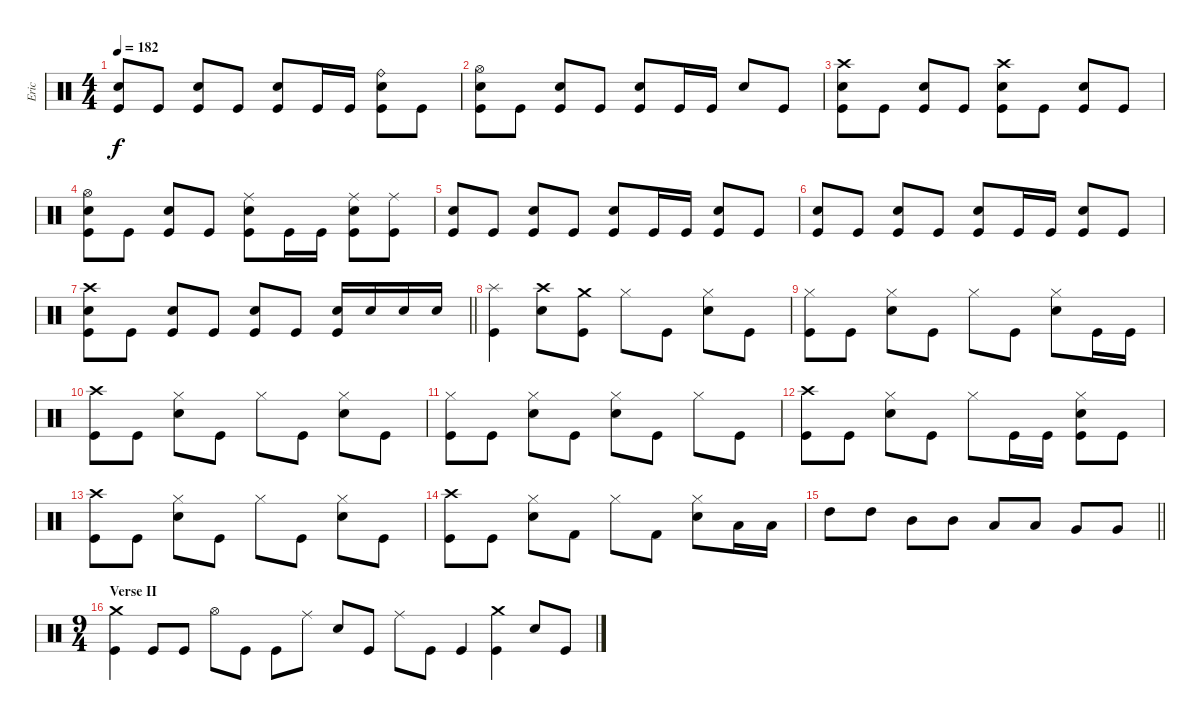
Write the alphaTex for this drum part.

\track ("Eric" "Eric") {instrument percussion}
\staff {score}
\articulation defaults
\ts (4 4)
\tempo 182
\clef neutral
\ks c
("Snare (hit) 2" "Kick (hit)").8{dy f} "Kick (hit)".8 ("Snare (hit) 2" "Kick (hit)").8 "Kick (hit)".8 ("Snare (hit) 2" "Kick (hit)").8 "Kick (hit)".16 "Kick (hit)".16 ("Ride (bell)" "Snare (hit) 2" "Kick (hit)").8 "Kick (hit)".8 |
("Hi-Hat (open)" "Snare (hit) 2" "Kick (hit)").8 "Kick (hit)".8 ("Snare (hit) 2" "Kick (hit)").8 "Kick (hit)".8 ("Snare (hit) 2" "Kick (hit)").8 "Kick (hit)".16 "Kick (hit)".16 "Snare (hit) 2".8 "Kick (hit)".8 |
("Crash high (hit)" "Snare (hit) 2" "Kick (hit)").8 "Kick (hit)".8 ("Snare (hit) 2" "Kick (hit)").8 "Kick (hit)".8 ("Crash high (hit)" "Snare (hit) 2" "Kick (hit)").8 "Kick (hit)".8 ("Snare (hit) 2" "Kick (hit)").8 "Kick (hit)".8 |
("Hi-Hat (open)" "Snare (hit) 2" "Kick (hit)").8 "Kick (hit)".8 ("Snare (hit) 2" "Kick (hit)").8 "Kick (hit)".8 ("Ride (middle)" "Snare (hit) 2" "Kick (hit)").8 "Kick (hit)".16 "Kick (hit)".16 ("Ride (middle)" "Snare (hit) 2" "Kick (hit)").8 ("Ride (middle)" "Kick (hit)").8 |
("Snare (hit) 2" "Kick (hit)").8 "Kick (hit)".8 ("Snare (hit) 2" "Kick (hit)").8 "Kick (hit)".8 ("Snare (hit) 2" "Kick (hit)").8 "Kick (hit)".16 "Kick (hit)".16 ("Snare (hit) 2" "Kick (hit)").8 "Kick (hit)".8 |
("Snare (hit) 2" "Kick (hit)").8 "Kick (hit)".8 ("Snare (hit) 2" "Kick (hit)").8 "Kick (hit)".8 ("Snare (hit) 2" "Kick (hit)").8 "Kick (hit)".16 "Kick (hit)".16 ("Snare (hit) 2" "Kick (hit)").8 "Kick (hit)".8 |
\barLineRight lightlight
("Crash high (hit)" "Snare (hit) 2" "Kick (hit)").8 "Kick (hit)".8 ("Snare (hit) 2" "Kick (hit)").8 "Kick (hit)".8 ("Snare (hit) 2" "Kick (hit)").8 "Kick (hit)".8 ("Snare (hit) 2" "Kick (hit)").16 "Snare (hit) 2".16 "Snare (hit) 2".16 "Snare (hit) 2".16 |
("Splash (hit)" "Kick (hit)").4 ("Crash high (hit)" "Snare (hit) 2").8 ("Crash medium (hit)" "Kick (hit)").8 "Hi-Hat (closed)".8 "Kick (hit)".8 ("Hi-Hat (closed)" "Snare (hit) 2").8 "Kick (hit)".8 |
("Hi-Hat (closed)" "Kick (hit)").8 "Kick (hit)".8 ("Hi-Hat (closed)" "Snare (hit) 2").8 "Kick (hit)".8 "Hi-Hat (closed)".8 "Kick (hit)".8 ("Hi-Hat (closed)" "Snare (hit) 2").8 "Kick (hit)".16 "Kick (hit)".16 |
("Crash high (hit)" "Kick (hit)").8 "Kick (hit)".8 ("Hi-Hat (closed)" "Snare (hit) 2").8 "Kick (hit)".8 "Hi-Hat (closed)".8 "Kick (hit)".8 ("Hi-Hat (closed)" "Snare (hit) 2").8 "Kick (hit)".8 |
("Hi-Hat (closed)" "Kick (hit)").8 "Kick (hit)".8 ("Hi-Hat (closed)" "Snare (hit) 2").8 "Kick (hit)".8 ("Hi-Hat (closed)" "Snare (hit) 2").8 "Kick (hit)".8 "Hi-Hat (closed)".8 "Kick (hit)".8 |
("Crash high (hit)" "Kick (hit)").8 "Kick (hit)".8 ("Hi-Hat (closed)" "Snare (hit) 2").8 "Kick (hit)".8 "Hi-Hat (closed)".8 "Kick (hit)".16 "Kick (hit)".16 ("Hi-Hat (closed)" "Snare (hit) 2" "Kick (hit)").8 "Kick (hit)".8 |
("Crash high (hit)" "Kick (hit)").8 "Kick (hit)".8 ("Hi-Hat (closed)" "Snare (hit) 2").8 "Kick (hit)".8 "Hi-Hat (closed)".8 "Kick (hit)".8 ("Hi-Hat (closed)" "Snare (hit) 2").8 "Kick (hit)".8 |
("Crash high (hit)" "Kick (hit)").8 "Kick (hit)".8 ("Hi-Hat (closed)" "Snare (hit) 2").8 "Kick (hit) 2".8 "Hi-Hat (closed)".8 "Kick (hit) 2".8 ("Hi-Hat (closed)" "Snare (hit) 2").8 "Low Tom (hit)".16 "Low Tom (hit)".16 |
\barLineRight lightlight "High Tom (hit)".8 "High Tom (hit)".8 "Mid Tom (hit)".8 "Mid Tom (hit)".8 "Low Tom (hit)".8 "Low Tom (hit)".8 "Very Low Tom (hit)".8 "Very Low Tom (hit)".8
|
\ts (9 4)
\section ("" "Verse II")
("Crash medium (hit)" "Kick (hit)").4 "Kick (hit)".8 "Kick (hit)".8 "Hi-Hat (open)".8 "Kick (hit)".8 "Kick (hit)".8 "Ride (middle)".8 "Snare (hit) 2".8 "Kick (hit)".8 "Ride (middle)".8 "Kick (hit)".8 "Kick (hit)".4 ("Crash medium (hit)" "Kick (hit)").4 "Snare (hit) 2".8 "Kick (hit)".8
